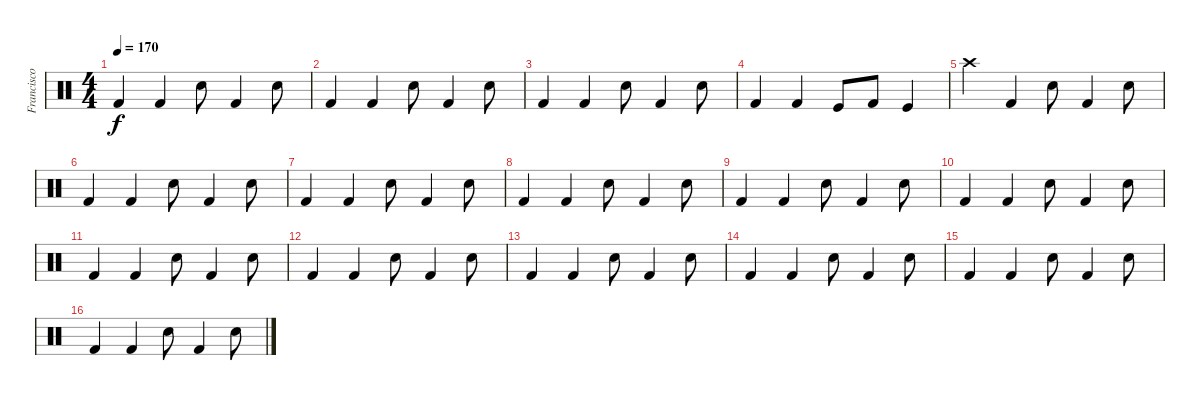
\track ("Francisco (batería)" "Francisco ") {instrument percussion}
\staff {score}
\articulation defaults
\ts (4 4)
\tempo 170
\clef neutral
\ks c "Kick (hit) 2".4{dy f volume 16} "Kick (hit) 2".4 "Electric Snare (hit)".8 "Kick (hit) 2".4 "Electric Snare (hit)".8
|
"Kick (hit) 2".4{volume 16} "Kick (hit) 2".4 "Electric Snare (hit)".8 "Kick (hit) 2".4 "Electric Snare (hit)".8 |
"Kick (hit) 2".4{volume 16} "Kick (hit) 2".4 "Electric Snare (hit)".8 "Kick (hit) 2".4 "Electric Snare (hit)".8 |
"Kick (hit) 2".4{volume 16} "Kick (hit) 2".4 "Kick (hit)".8 "Kick (hit) 2".8 "Kick (hit)".4 |
"Crash high (hit)".4{volume 16} "Kick (hit) 2".4 "Electric Snare (hit)".8 "Kick (hit) 2".4 "Electric Snare (hit)".8 |
"Kick (hit) 2".4 "Kick (hit) 2".4 "Electric Snare (hit)".8 "Kick (hit) 2".4 "Electric Snare (hit)".8 |
"Kick (hit) 2".4 "Kick (hit) 2".4 "Electric Snare (hit)".8 "Kick (hit) 2".4 "Electric Snare (hit)".8 |
"Kick (hit) 2".4 "Kick (hit) 2".4 "Electric Snare (hit)".8 "Kick (hit) 2".4 "Electric Snare (hit)".8 |
"Kick (hit) 2".4 "Kick (hit) 2".4 "Electric Snare (hit)".8 "Kick (hit) 2".4 "Electric Snare (hit)".8 |
"Kick (hit) 2".4 "Kick (hit) 2".4 "Electric Snare (hit)".8 "Kick (hit) 2".4 "Electric Snare (hit)".8 |
"Kick (hit) 2".4 "Kick (hit) 2".4 "Electric Snare (hit)".8 "Kick (hit) 2".4 "Electric Snare (hit)".8 |
"Kick (hit) 2".4 "Kick (hit) 2".4 "Electric Snare (hit)".8 "Kick (hit) 2".4 "Electric Snare (hit)".8 |
"Kick (hit) 2".4 "Kick (hit) 2".4 "Electric Snare (hit)".8 "Kick (hit) 2".4 "Electric Snare (hit)".8 |
"Kick (hit) 2".4 "Kick (hit) 2".4 "Electric Snare (hit)".8 "Kick (hit) 2".4 "Electric Snare (hit)".8 |
"Kick (hit) 2".4 "Kick (hit) 2".4 "Electric Snare (hit)".8 "Kick (hit) 2".4 "Electric Snare (hit)".8 |
"Kick (hit) 2".4 "Kick (hit) 2".4 "Electric Snare (hit)".8 "Kick (hit) 2".4 "Electric Snare (hit)".8
